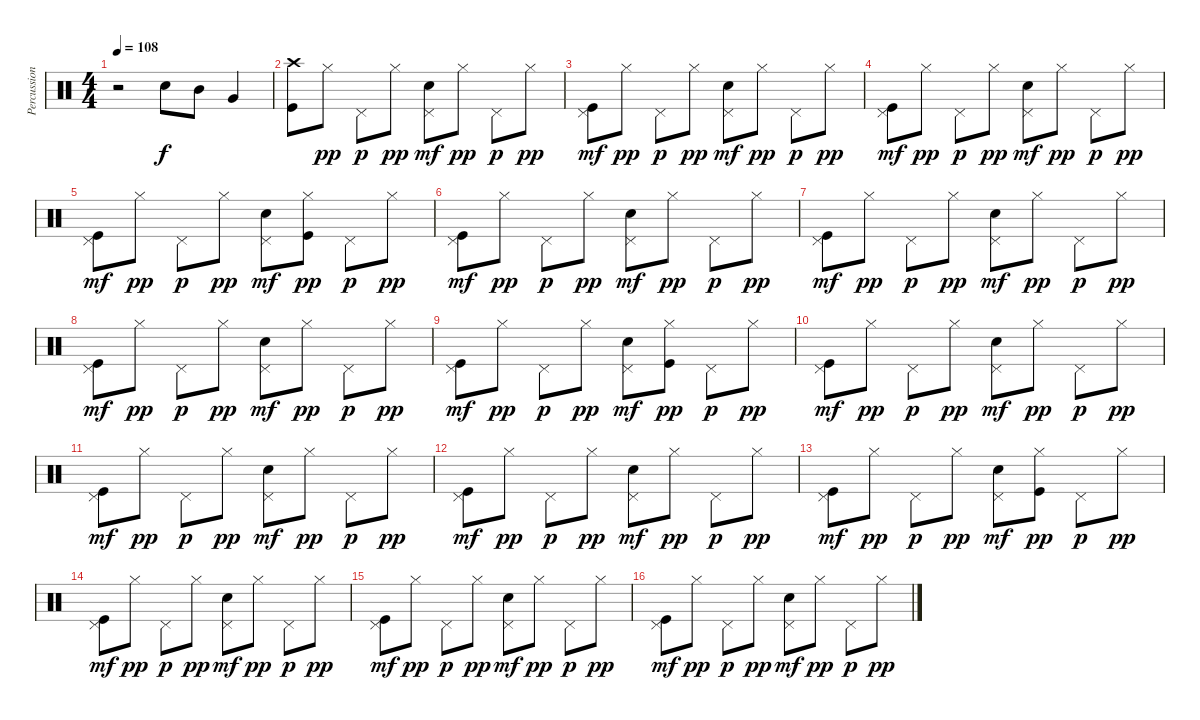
\track ("Percussion" "Percussion") {instrument percussion}
\staff {score}
\articulation defaults
\ts (4 4)
\tempo 108
\clef neutral
\ks c
r.2{dy f} "Electric Snare (hit)".8 "Mid Tom (hit)".8 "Very Low Tom (hit)".4 |
("Kick (hit)" "Crash high (hit)").8 "Hi-Hat (closed)".8{dy pp} "Pedal Hi-Hat (hit)".8{dy p} "Hi-Hat (closed)".8{dy pp} ("Electric Snare (hit)" "Pedal Hi-Hat (hit)").8{dy mf} "Hi-Hat (closed)".8{dy pp} "Pedal Hi-Hat (hit)".8{dy p} "Hi-Hat (closed)".8{dy pp} |
("Kick (hit)" "Pedal Hi-Hat (hit)").8{dy mf} "Hi-Hat (closed)".8{dy pp} "Pedal Hi-Hat (hit)".8{dy p} "Hi-Hat (closed)".8{dy pp} ("Electric Snare (hit)" "Pedal Hi-Hat (hit)").8{dy mf} "Hi-Hat (closed)".8{dy pp} "Pedal Hi-Hat (hit)".8{dy p} "Hi-Hat (closed)".8{dy pp} |
("Kick (hit)" "Pedal Hi-Hat (hit)").8{dy mf} "Hi-Hat (closed)".8{dy pp} "Pedal Hi-Hat (hit)".8{dy p} "Hi-Hat (closed)".8{dy pp} ("Electric Snare (hit)" "Pedal Hi-Hat (hit)").8{dy mf} "Hi-Hat (closed)".8{dy pp} "Pedal Hi-Hat (hit)".8{dy p} "Hi-Hat (closed)".8{dy pp} |
("Kick (hit)" "Pedal Hi-Hat (hit)").8{dy mf} "Hi-Hat (closed)".8{dy pp} "Pedal Hi-Hat (hit)".8{dy p} "Hi-Hat (closed)".8{dy pp} ("Electric Snare (hit)" "Pedal Hi-Hat (hit)").8{dy mf} ("Kick (hit)" "Hi-Hat (closed)").8{dy pp} "Pedal Hi-Hat (hit)".8{dy p} "Hi-Hat (closed)".8{dy pp} |
("Kick (hit)" "Pedal Hi-Hat (hit)").8{dy mf} "Hi-Hat (closed)".8{dy pp} "Pedal Hi-Hat (hit)".8{dy p} "Hi-Hat (closed)".8{dy pp} ("Electric Snare (hit)" "Pedal Hi-Hat (hit)").8{dy mf} "Hi-Hat (closed)".8{dy pp} "Pedal Hi-Hat (hit)".8{dy p} "Hi-Hat (closed)".8{dy pp} |
("Kick (hit)" "Pedal Hi-Hat (hit)").8{dy mf} "Hi-Hat (closed)".8{dy pp} "Pedal Hi-Hat (hit)".8{dy p} "Hi-Hat (closed)".8{dy pp} ("Electric Snare (hit)" "Pedal Hi-Hat (hit)").8{dy mf} "Hi-Hat (closed)".8{dy pp} "Pedal Hi-Hat (hit)".8{dy p} "Hi-Hat (closed)".8{dy pp} |
("Kick (hit)" "Pedal Hi-Hat (hit)").8{dy mf} "Hi-Hat (closed)".8{dy pp} "Pedal Hi-Hat (hit)".8{dy p} "Hi-Hat (closed)".8{dy pp} ("Electric Snare (hit)" "Pedal Hi-Hat (hit)").8{dy mf} "Hi-Hat (closed)".8{dy pp} "Pedal Hi-Hat (hit)".8{dy p} "Hi-Hat (closed)".8{dy pp} |
("Kick (hit)" "Pedal Hi-Hat (hit)").8{dy mf} "Hi-Hat (closed)".8{dy pp} "Pedal Hi-Hat (hit)".8{dy p} "Hi-Hat (closed)".8{dy pp} ("Electric Snare (hit)" "Pedal Hi-Hat (hit)").8{dy mf} ("Kick (hit)" "Hi-Hat (closed)").8{dy pp} "Pedal Hi-Hat (hit)".8{dy p} "Hi-Hat (closed)".8{dy pp} |
("Kick (hit)" "Pedal Hi-Hat (hit)").8{dy mf} "Hi-Hat (closed)".8{dy pp} "Pedal Hi-Hat (hit)".8{dy p} "Hi-Hat (closed)".8{dy pp} ("Electric Snare (hit)" "Pedal Hi-Hat (hit)").8{dy mf} "Hi-Hat (closed)".8{dy pp} "Pedal Hi-Hat (hit)".8{dy p} "Hi-Hat (closed)".8{dy pp} |
("Kick (hit)" "Pedal Hi-Hat (hit)").8{dy mf} "Hi-Hat (closed)".8{dy pp} "Pedal Hi-Hat (hit)".8{dy p} "Hi-Hat (closed)".8{dy pp} ("Electric Snare (hit)" "Pedal Hi-Hat (hit)").8{dy mf} "Hi-Hat (closed)".8{dy pp} "Pedal Hi-Hat (hit)".8{dy p} "Hi-Hat (closed)".8{dy pp} |
("Kick (hit)" "Pedal Hi-Hat (hit)").8{dy mf} "Hi-Hat (closed)".8{dy pp} "Pedal Hi-Hat (hit)".8{dy p} "Hi-Hat (closed)".8{dy pp} ("Electric Snare (hit)" "Pedal Hi-Hat (hit)").8{dy mf} "Hi-Hat (closed)".8{dy pp} "Pedal Hi-Hat (hit)".8{dy p} "Hi-Hat (closed)".8{dy pp} |
("Kick (hit)" "Pedal Hi-Hat (hit)").8{dy mf} "Hi-Hat (closed)".8{dy pp} "Pedal Hi-Hat (hit)".8{dy p} "Hi-Hat (closed)".8{dy pp} ("Electric Snare (hit)" "Pedal Hi-Hat (hit)").8{dy mf} ("Kick (hit)" "Hi-Hat (closed)").8{dy pp} "Pedal Hi-Hat (hit)".8{dy p} "Hi-Hat (closed)".8{dy pp} |
("Kick (hit)" "Pedal Hi-Hat (hit)").8{dy mf} "Hi-Hat (closed)".8{dy pp} "Pedal Hi-Hat (hit)".8{dy p} "Hi-Hat (closed)".8{dy pp} ("Electric Snare (hit)" "Pedal Hi-Hat (hit)").8{dy mf} "Hi-Hat (closed)".8{dy pp} "Pedal Hi-Hat (hit)".8{dy p} "Hi-Hat (closed)".8{dy pp} |
("Kick (hit)" "Pedal Hi-Hat (hit)").8{dy mf} "Hi-Hat (closed)".8{dy pp} "Pedal Hi-Hat (hit)".8{dy p} "Hi-Hat (closed)".8{dy pp} ("Electric Snare (hit)" "Pedal Hi-Hat (hit)").8{dy mf} "Hi-Hat (closed)".8{dy pp} "Pedal Hi-Hat (hit)".8{dy p} "Hi-Hat (closed)".8{dy pp} |
("Kick (hit)" "Pedal Hi-Hat (hit)").8{dy mf} "Hi-Hat (closed)".8{dy pp} "Pedal Hi-Hat (hit)".8{dy p} "Hi-Hat (closed)".8{dy pp} ("Electric Snare (hit)" "Pedal Hi-Hat (hit)").8{dy mf} "Hi-Hat (closed)".8{dy pp} "Pedal Hi-Hat (hit)".8{dy p} "Hi-Hat (closed)".8{dy pp}
